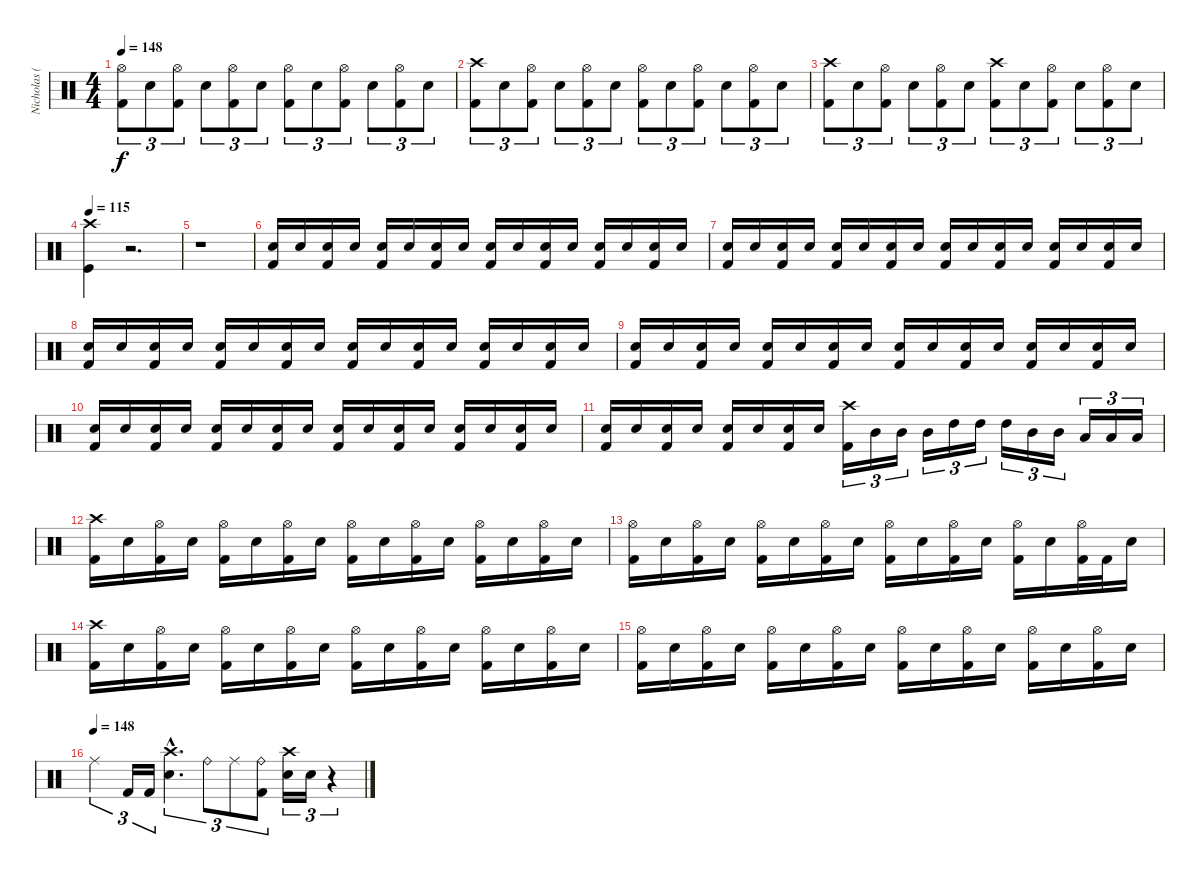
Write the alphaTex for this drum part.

\track ("Nicholas (Drums)" "Nicholas (") {instrument percussion}
\staff {score}
\articulation defaults
\ts (4 4)
\tempo 148
\clef neutral
\ks c
("Hi-Hat (open)" "Kick (hit) 2").8{tu (3 2) dy f} "Electric Snare (hit)".8{tu (3 2)} ("Hi-Hat (open)" "Kick (hit) 2").8{tu (3 2)} "Electric Snare (hit)".8{tu (3 2)} ("Hi-Hat (open)" "Kick (hit) 2").8{tu (3 2)} "Electric Snare (hit)".8{tu (3 2)} ("Hi-Hat (open)" "Kick (hit) 2").8{tu (3 2)} "Electric Snare (hit)".8{tu (3 2)} ("Hi-Hat (open)" "Kick (hit) 2").8{tu (3 2)} "Electric Snare (hit)".8{tu (3 2)} ("Hi-Hat (open)" "Kick (hit) 2").8{tu (3 2)} "Electric Snare (hit)".8{tu (3 2)} |
("Crash high (hit)" "Kick (hit) 2").8{tu (3 2)} "Electric Snare (hit)".8{tu (3 2)} ("Hi-Hat (open)" "Kick (hit) 2").8{tu (3 2)} "Electric Snare (hit)".8{tu (3 2)} ("Hi-Hat (open)" "Kick (hit) 2").8{tu (3 2)} "Electric Snare (hit)".8{tu (3 2)} ("Hi-Hat (open)" "Kick (hit) 2").8{tu (3 2)} "Electric Snare (hit)".8{tu (3 2)} ("Hi-Hat (open)" "Kick (hit) 2").8{tu (3 2)} "Electric Snare (hit)".8{tu (3 2)} ("Hi-Hat (open)" "Kick (hit) 2").8{tu (3 2)} "Electric Snare (hit)".8{tu (3 2)} |
("Crash high (hit)" "Kick (hit) 2").8{tu (3 2)} "Electric Snare (hit)".8{tu (3 2)} ("Hi-Hat (open)" "Kick (hit) 2").8{tu (3 2)} "Electric Snare (hit)".8{tu (3 2)} ("Hi-Hat (open)" "Kick (hit) 2").8{tu (3 2)} "Electric Snare (hit)".8{tu (3 2)} ("Crash high (hit)" "Kick (hit) 2").8{tu (3 2)} "Electric Snare (hit)".8{tu (3 2)} ("Hi-Hat (open)" "Kick (hit) 2").8{tu (3 2)} "Electric Snare (hit)".8{tu (3 2)} ("Hi-Hat (open)" "Kick (hit) 2").8{tu (3 2)} "Electric Snare (hit)".8{tu (3 2)} |
\tempo 115
("Crash high (hit)" "Kick (hit)").4 r.2{d} |
r.1 |
("Electric Snare (hit)" "Kick (hit) 2").16 "Electric Snare (hit)".16 ("Electric Snare (hit)" "Kick (hit) 2").16 "Electric Snare (hit)".16 ("Electric Snare (hit)" "Kick (hit) 2").16 "Electric Snare (hit)".16 ("Electric Snare (hit)" "Kick (hit) 2").16 "Electric Snare (hit)".16 ("Electric Snare (hit)" "Kick (hit) 2").16 "Electric Snare (hit)".16 ("Electric Snare (hit)" "Kick (hit) 2").16 "Electric Snare (hit)".16 ("Electric Snare (hit)" "Kick (hit) 2").16 "Electric Snare (hit)".16 ("Electric Snare (hit)" "Kick (hit) 2").16 "Electric Snare (hit)".16 |
("Electric Snare (hit)" "Kick (hit) 2").16 "Electric Snare (hit)".16 ("Electric Snare (hit)" "Kick (hit) 2").16 "Electric Snare (hit)".16 ("Electric Snare (hit)" "Kick (hit) 2").16 "Electric Snare (hit)".16 ("Electric Snare (hit)" "Kick (hit) 2").16 "Electric Snare (hit)".16 ("Electric Snare (hit)" "Kick (hit) 2").16 "Electric Snare (hit)".16 ("Electric Snare (hit)" "Kick (hit) 2").16 "Electric Snare (hit)".16 ("Electric Snare (hit)" "Kick (hit) 2").16 "Electric Snare (hit)".16 ("Electric Snare (hit)" "Kick (hit) 2").16 "Electric Snare (hit)".16 |
("Electric Snare (hit)" "Kick (hit) 2").16 "Electric Snare (hit)".16 ("Electric Snare (hit)" "Kick (hit) 2").16 "Electric Snare (hit)".16 ("Electric Snare (hit)" "Kick (hit) 2").16 "Electric Snare (hit)".16 ("Electric Snare (hit)" "Kick (hit) 2").16 "Electric Snare (hit)".16 ("Electric Snare (hit)" "Kick (hit) 2").16 "Electric Snare (hit)".16 ("Electric Snare (hit)" "Kick (hit) 2").16 "Electric Snare (hit)".16 ("Electric Snare (hit)" "Kick (hit) 2").16 "Electric Snare (hit)".16 ("Electric Snare (hit)" "Kick (hit) 2").16 "Electric Snare (hit)".16 |
("Electric Snare (hit)" "Kick (hit) 2").16 "Electric Snare (hit)".16 ("Electric Snare (hit)" "Kick (hit) 2").16 "Electric Snare (hit)".16 ("Electric Snare (hit)" "Kick (hit) 2").16 "Electric Snare (hit)".16 ("Electric Snare (hit)" "Kick (hit) 2").16 "Electric Snare (hit)".16 ("Electric Snare (hit)" "Kick (hit) 2").16 "Electric Snare (hit)".16 ("Electric Snare (hit)" "Kick (hit) 2").16 "Electric Snare (hit)".16 ("Electric Snare (hit)" "Kick (hit) 2").16 "Electric Snare (hit)".16 ("Electric Snare (hit)" "Kick (hit) 2").16 "Electric Snare (hit)".16 |
("Electric Snare (hit)" "Kick (hit) 2").16 "Electric Snare (hit)".16 ("Electric Snare (hit)" "Kick (hit) 2").16 "Electric Snare (hit)".16 ("Electric Snare (hit)" "Kick (hit) 2").16 "Electric Snare (hit)".16 ("Electric Snare (hit)" "Kick (hit) 2").16 "Electric Snare (hit)".16 ("Electric Snare (hit)" "Kick (hit) 2").16 "Electric Snare (hit)".16 ("Electric Snare (hit)" "Kick (hit) 2").16 "Electric Snare (hit)".16 ("Electric Snare (hit)" "Kick (hit) 2").16 "Electric Snare (hit)".16 ("Electric Snare (hit)" "Kick (hit) 2").16 "Electric Snare (hit)".16 |
("Electric Snare (hit)" "Kick (hit) 2").16 "Electric Snare (hit)".16 ("Electric Snare (hit)" "Kick (hit) 2").16 "Electric Snare (hit)".16 ("Electric Snare (hit)" "Kick (hit) 2").16 "Electric Snare (hit)".16 ("Electric Snare (hit)" "Kick (hit) 2").16 "Electric Snare (hit)".16 ("Crash high (hit)" "Kick (hit) 2").16{tu (3 2)} "Mid Tom (hit)".16{tu (3 2)} "Mid Tom (hit)".16{tu (3 2)} "Mid Tom (hit)".16{tu (3 2)} "High Tom (hit)".16{tu (3 2)} "High Tom (hit)".16{tu (3 2)} "High Tom (hit)".16{tu (3 2)} "Mid Tom (hit)".16{tu (3 2)} "Mid Tom (hit)".16{tu (3 2)} "Low Tom (hit)".16{tu (3 2)} "Low Tom (hit)".16{tu (3 2)} "Low Tom (hit)".16{tu (3 2)} |
("Crash high (hit)" "Kick (hit) 2").16 "Electric Snare (hit)".16 ("Hi-Hat (open)" "Kick (hit) 2").16 "Electric Snare (hit)".16 ("Hi-Hat (open)" "Kick (hit) 2").16 "Electric Snare (hit)".16 ("Hi-Hat (open)" "Kick (hit) 2").16 "Electric Snare (hit)".16 ("Hi-Hat (open)" "Kick (hit) 2").16 "Electric Snare (hit)".16 ("Hi-Hat (open)" "Kick (hit) 2").16 "Electric Snare (hit)".16 ("Hi-Hat (open)" "Kick (hit) 2").16 "Electric Snare (hit)".16 ("Hi-Hat (open)" "Kick (hit) 2").16 "Electric Snare (hit)".16 |
("Hi-Hat (open)" "Kick (hit) 2").16 "Electric Snare (hit)".16 ("Hi-Hat (open)" "Kick (hit) 2").16 "Electric Snare (hit)".16 ("Hi-Hat (open)" "Kick (hit) 2").16 "Electric Snare (hit)".16 ("Hi-Hat (open)" "Kick (hit) 2").16 "Electric Snare (hit)".16 ("Hi-Hat (open)" "Kick (hit) 2").16 "Electric Snare (hit)".16 ("Hi-Hat (open)" "Kick (hit) 2").16 "Electric Snare (hit)".16 ("Hi-Hat (open)" "Kick (hit) 2").16 "Electric Snare (hit)".16 ("Hi-Hat (open)" "Kick (hit) 2").32 "Kick (hit) 2".32 "Electric Snare (hit)".16 |
("Crash high (hit)" "Kick (hit) 2").16 "Electric Snare (hit)".16 ("Hi-Hat (open)" "Kick (hit) 2").16 "Electric Snare (hit)".16 ("Hi-Hat (open)" "Kick (hit) 2").16 "Electric Snare (hit)".16 ("Hi-Hat (open)" "Kick (hit) 2").16 "Electric Snare (hit)".16 ("Hi-Hat (open)" "Kick (hit) 2").16 "Electric Snare (hit)".16 ("Hi-Hat (open)" "Kick (hit) 2").16 "Electric Snare (hit)".16 ("Hi-Hat (open)" "Kick (hit) 2").16 "Electric Snare (hit)".16 ("Hi-Hat (open)" "Kick (hit) 2").16 "Electric Snare (hit)".16 |
("Hi-Hat (open)" "Kick (hit) 2").16 "Electric Snare (hit)".16 ("Hi-Hat (open)" "Kick (hit) 2").16 "Electric Snare (hit)".16 ("Hi-Hat (open)" "Kick (hit) 2").16 "Electric Snare (hit)".16 ("Hi-Hat (open)" "Kick (hit) 2").16 "Electric Snare (hit)".16 ("Hi-Hat (open)" "Kick (hit) 2").16 "Electric Snare (hit)".16 ("Hi-Hat (open)" "Kick (hit) 2").16 "Electric Snare (hit)".16 ("Hi-Hat (open)" "Kick (hit) 2").16 "Electric Snare (hit)".16 ("Hi-Hat (open)" "Kick (hit) 2").16 "Electric Snare (hit)".16 |
\tempo (148)
"Ride (middle)".4{tu (3 2)} "Kick (hit) 2".16{tu (3 2)} "Kick (hit) 2".16{tu (3 2)} ("Crash high (hit)"{hac} "Electric Snare (hit)"{hac}).4{d tu (3 2)} "Ride (bell)".8{tu (3 2)} "Ride (middle)".8{tu (3 2)} ("Ride (bell)" "Kick (hit) 2").8{tu (3 2)} ("Crash high (hit)" "Electric Snare (hit)").16{tu (3 2)} "Electric Snare (hit)".16{tu (3 2)} r.4{tu (3 2)}
